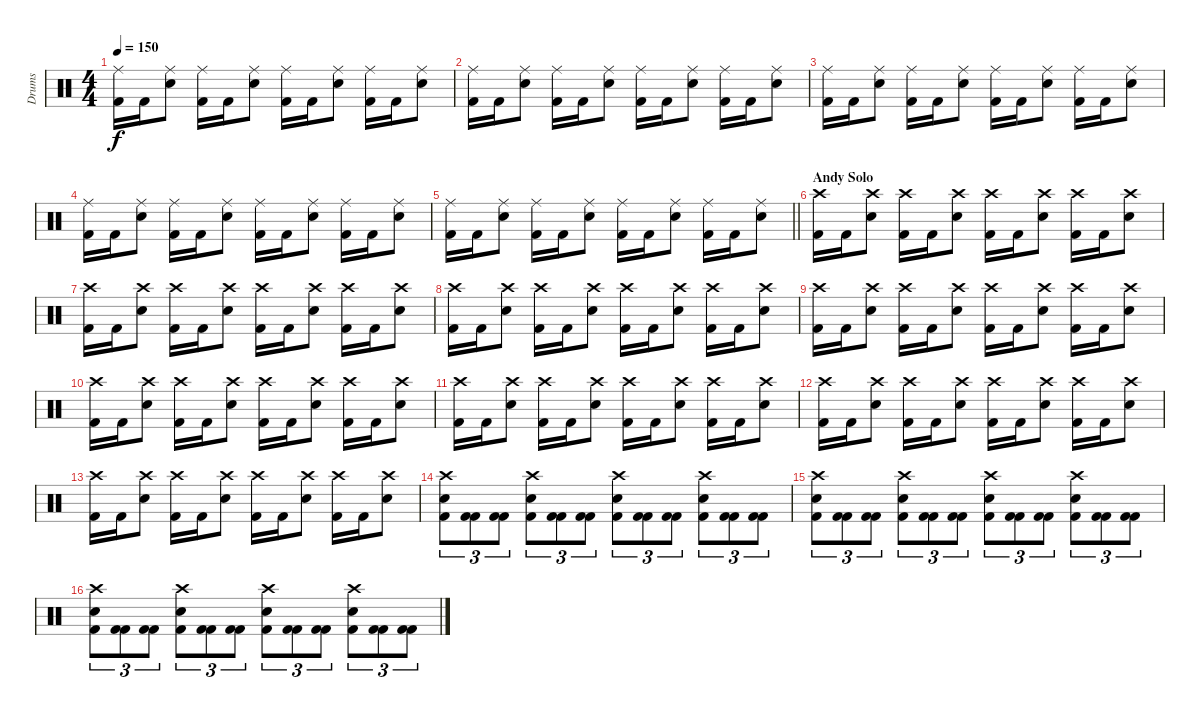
\track ("Drums" "Drums") {instrument percussion}
\staff {score}
\articulation defaults
\ts (4 4)
\tempo 150
\clef neutral
\ks c
("Ride (middle)" "Kick (hit) 2").16{dy f} "Kick (hit) 2".16 ("Ride (middle)" "Snare (hit) 2").8 ("Ride (middle)" "Kick (hit) 2").16 "Kick (hit) 2".16 ("Ride (middle)" "Snare (hit) 2").8 ("Ride (middle)" "Kick (hit) 2").16 "Kick (hit) 2".16 ("Ride (middle)" "Snare (hit) 2").8 ("Ride (middle)" "Kick (hit) 2").16 "Kick (hit) 2".16 ("Ride (middle)" "Snare (hit) 2").8 |
("Ride (middle)" "Kick (hit) 2").16 "Kick (hit) 2".16 ("Ride (middle)" "Snare (hit) 2").8 ("Ride (middle)" "Kick (hit) 2").16 "Kick (hit) 2".16 ("Ride (middle)" "Snare (hit) 2").8 ("Ride (middle)" "Kick (hit) 2").16 "Kick (hit) 2".16 ("Ride (middle)" "Snare (hit) 2").8 ("Ride (middle)" "Kick (hit) 2").16 "Kick (hit) 2".16 ("Ride (middle)" "Snare (hit) 2").8 |
("Ride (middle)" "Kick (hit) 2").16 "Kick (hit) 2".16 ("Ride (middle)" "Snare (hit) 2").8 ("Ride (middle)" "Kick (hit) 2").16 "Kick (hit) 2".16 ("Ride (middle)" "Snare (hit) 2").8 ("Ride (middle)" "Kick (hit) 2").16 "Kick (hit) 2".16 ("Ride (middle)" "Snare (hit) 2").8 ("Ride (middle)" "Kick (hit) 2").16 "Kick (hit) 2".16 ("Ride (middle)" "Snare (hit) 2").8 |
("Ride (middle)" "Kick (hit) 2").16 "Kick (hit) 2".16 ("Ride (middle)" "Snare (hit) 2").8 ("Ride (middle)" "Kick (hit) 2").16 "Kick (hit) 2".16 ("Ride (middle)" "Snare (hit) 2").8 ("Ride (middle)" "Kick (hit) 2").16 "Kick (hit) 2".16 ("Ride (middle)" "Snare (hit) 2").8 ("Ride (middle)" "Kick (hit) 2").16 "Kick (hit) 2".16 ("Ride (middle)" "Snare (hit) 2").8 |
\barLineRight lightlight
("Ride (middle)" "Kick (hit) 2").16 "Kick (hit) 2".16 ("Ride (middle)" "Snare (hit) 2").8 ("Ride (middle)" "Kick (hit) 2").16 "Kick (hit) 2".16 ("Ride (middle)" "Snare (hit) 2").8 ("Ride (middle)" "Kick (hit) 2").16 "Kick (hit) 2".16 ("Ride (middle)" "Snare (hit) 2").8 ("Ride (middle)" "Kick (hit) 2").16 "Kick (hit) 2".16 ("Ride (middle)" "Snare (hit) 2").8 |
\section ("" "Andy Solo")
("Crash high (hit)" "Kick (hit) 2").16 "Kick (hit) 2".16 ("Crash high (hit)" "Snare (hit) 2").8 ("Crash high (hit)" "Kick (hit) 2").16 "Kick (hit) 2".16 ("Crash high (hit)" "Snare (hit) 2").8 ("Crash high (hit)" "Kick (hit) 2").16 "Kick (hit) 2".16 ("Crash high (hit)" "Snare (hit) 2").8 ("Crash high (hit)" "Kick (hit) 2").16 "Kick (hit) 2".16 ("Crash high (hit)" "Snare (hit) 2").8 |
("Crash high (hit)" "Kick (hit) 2").16 "Kick (hit) 2".16 ("Crash high (hit)" "Snare (hit) 2").8 ("Crash high (hit)" "Kick (hit) 2").16 "Kick (hit) 2".16 ("Crash high (hit)" "Snare (hit) 2").8 ("Crash high (hit)" "Kick (hit) 2").16 "Kick (hit) 2".16 ("Crash high (hit)" "Snare (hit) 2").8 ("Crash high (hit)" "Kick (hit) 2").16 "Kick (hit) 2".16 ("Crash high (hit)" "Snare (hit) 2").8 |
("Crash high (hit)" "Kick (hit) 2").16 "Kick (hit) 2".16 ("Crash high (hit)" "Snare (hit) 2").8 ("Crash high (hit)" "Kick (hit) 2").16 "Kick (hit) 2".16 ("Crash high (hit)" "Snare (hit) 2").8 ("Crash high (hit)" "Kick (hit) 2").16 "Kick (hit) 2".16 ("Crash high (hit)" "Snare (hit) 2").8 ("Crash high (hit)" "Kick (hit) 2").16 "Kick (hit) 2".16 ("Crash high (hit)" "Snare (hit) 2").8 |
("Crash high (hit)" "Kick (hit) 2").16 "Kick (hit) 2".16 ("Crash high (hit)" "Snare (hit) 2").8 ("Crash high (hit)" "Kick (hit) 2").16 "Kick (hit) 2".16 ("Crash high (hit)" "Snare (hit) 2").8 ("Crash high (hit)" "Kick (hit) 2").16 "Kick (hit) 2".16 ("Crash high (hit)" "Snare (hit) 2").8 ("Crash high (hit)" "Kick (hit) 2").16 "Kick (hit) 2".16 ("Crash high (hit)" "Snare (hit) 2").8 |
("Crash high (hit)" "Kick (hit) 2").16 "Kick (hit) 2".16 ("Crash high (hit)" "Snare (hit) 2").8 ("Crash high (hit)" "Kick (hit) 2").16 "Kick (hit) 2".16 ("Crash high (hit)" "Snare (hit) 2").8 ("Crash high (hit)" "Kick (hit) 2").16 "Kick (hit) 2".16 ("Crash high (hit)" "Snare (hit) 2").8 ("Crash high (hit)" "Kick (hit) 2").16 "Kick (hit) 2".16 ("Crash high (hit)" "Snare (hit) 2").8 |
("Crash high (hit)" "Kick (hit) 2").16 "Kick (hit) 2".16 ("Crash high (hit)" "Snare (hit) 2").8 ("Crash high (hit)" "Kick (hit) 2").16 "Kick (hit) 2".16 ("Crash high (hit)" "Snare (hit) 2").8 ("Crash high (hit)" "Kick (hit) 2").16 "Kick (hit) 2".16 ("Crash high (hit)" "Snare (hit) 2").8 ("Crash high (hit)" "Kick (hit) 2").16 "Kick (hit) 2".16 ("Crash high (hit)" "Snare (hit) 2").8 |
("Crash high (hit)" "Kick (hit) 2").16 "Kick (hit) 2".16 ("Crash high (hit)" "Snare (hit) 2").8 ("Crash high (hit)" "Kick (hit) 2").16 "Kick (hit) 2".16 ("Crash high (hit)" "Snare (hit) 2").8 ("Crash high (hit)" "Kick (hit) 2").16 "Kick (hit) 2".16 ("Crash high (hit)" "Snare (hit) 2").8 ("Crash high (hit)" "Kick (hit) 2").16 "Kick (hit) 2".16 ("Crash high (hit)" "Snare (hit) 2").8 |
("Crash high (hit)" "Kick (hit) 2").16 "Kick (hit) 2".16 ("Crash high (hit)" "Snare (hit) 2").8 ("Crash high (hit)" "Kick (hit) 2").16 "Kick (hit) 2".16 ("Crash high (hit)" "Snare (hit) 2").8 ("Crash high (hit)" "Kick (hit) 2").16 "Kick (hit) 2".16 ("Crash high (hit)" "Snare (hit) 2").8 ("Crash high (hit)" "Kick (hit) 2").16 "Kick (hit) 2".16 ("Crash high (hit)" "Snare (hit) 2").8 |
("Crash high (hit)" "Snare (hit) 2" "Kick (hit) 2").8{tu (3 2)} ("Kick (hit) 2" "Kick (hit) 2").8{tu (3 2)} ("Kick (hit) 2" "Kick (hit) 2").8{tu (3 2)} ("Crash high (hit)" "Snare (hit) 2" "Kick (hit) 2").8{tu (3 2)} ("Kick (hit) 2" "Kick (hit) 2").8{tu (3 2)} ("Kick (hit) 2" "Kick (hit) 2").8{tu (3 2)} ("Crash high (hit)" "Snare (hit) 2" "Kick (hit) 2").8{tu (3 2)} ("Kick (hit) 2" "Kick (hit) 2").8{tu (3 2)} ("Kick (hit) 2" "Kick (hit) 2").8{tu (3 2)} ("Crash high (hit)" "Snare (hit) 2" "Kick (hit) 2").8{tu (3 2)} ("Kick (hit) 2" "Kick (hit) 2").8{tu (3 2)} ("Kick (hit) 2" "Kick (hit) 2").8{tu (3 2)} |
("Crash high (hit)" "Snare (hit) 2" "Kick (hit) 2").8{tu (3 2)} ("Kick (hit) 2" "Kick (hit) 2").8{tu (3 2)} ("Kick (hit) 2" "Kick (hit) 2").8{tu (3 2)} ("Crash high (hit)" "Snare (hit) 2" "Kick (hit) 2").8{tu (3 2)} ("Kick (hit) 2" "Kick (hit) 2").8{tu (3 2)} ("Kick (hit) 2" "Kick (hit) 2").8{tu (3 2)} ("Crash high (hit)" "Snare (hit) 2" "Kick (hit) 2").8{tu (3 2)} ("Kick (hit) 2" "Kick (hit) 2").8{tu (3 2)} ("Kick (hit) 2" "Kick (hit) 2").8{tu (3 2)} ("Crash high (hit)" "Snare (hit) 2" "Kick (hit) 2").8{tu (3 2)} ("Kick (hit) 2" "Kick (hit) 2").8{tu (3 2)} ("Kick (hit) 2" "Kick (hit) 2").8{tu (3 2)} |
("Crash high (hit)" "Snare (hit) 2" "Kick (hit) 2").8{tu (3 2)} ("Kick (hit) 2" "Kick (hit) 2").8{tu (3 2)} ("Kick (hit) 2" "Kick (hit) 2").8{tu (3 2)} ("Crash high (hit)" "Snare (hit) 2" "Kick (hit) 2").8{tu (3 2)} ("Kick (hit) 2" "Kick (hit) 2").8{tu (3 2)} ("Kick (hit) 2" "Kick (hit) 2").8{tu (3 2)} ("Crash high (hit)" "Snare (hit) 2" "Kick (hit) 2").8{tu (3 2)} ("Kick (hit) 2" "Kick (hit) 2").8{tu (3 2)} ("Kick (hit) 2" "Kick (hit) 2").8{tu (3 2)} ("Crash high (hit)" "Snare (hit) 2" "Kick (hit) 2").8{tu (3 2)} ("Kick (hit) 2" "Kick (hit) 2").8{tu (3 2)} ("Kick (hit) 2" "Kick (hit) 2").8{tu (3 2)}
